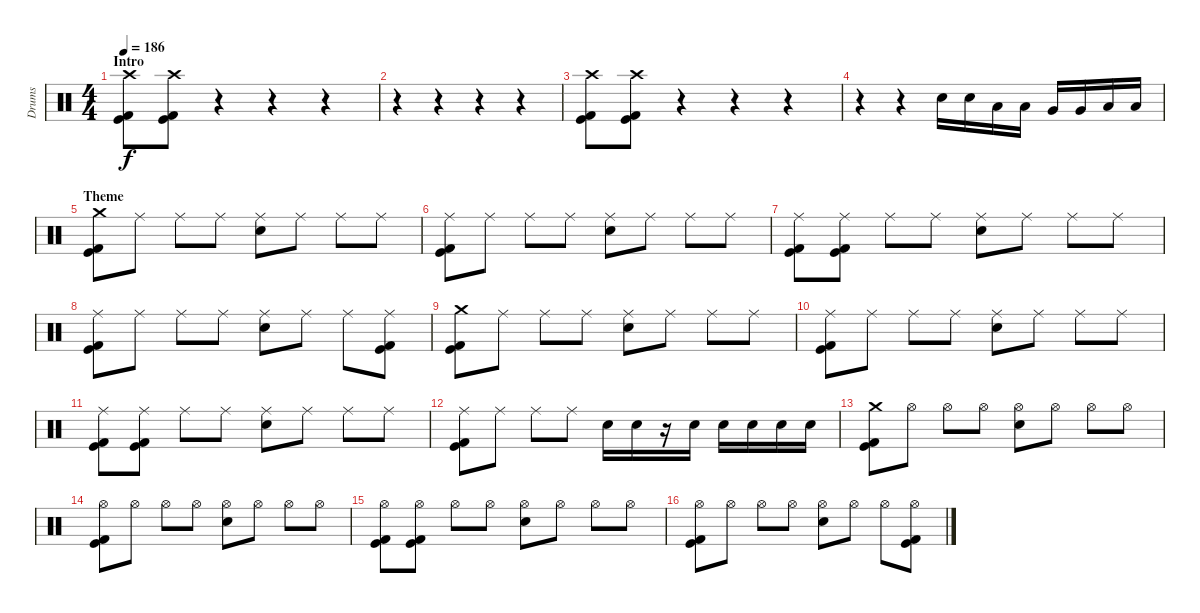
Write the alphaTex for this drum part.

\track ("Drums" "Drums") {instrument percussion}
\staff {score}
\articulation defaults
\ts (4 4)
\section ("" "Intro")
\tempo 186
\clef neutral
\ks c
("Crash high (hit)" "Kick (hit)" "Kick (hit) 2").8{dy f} ("Crash high (hit)" "Kick (hit)" "Kick (hit) 2").8 r.4 r.4 r.4 |
r.4 r.4 r.4 r.4 |
("Crash high (hit)" "Kick (hit)" "Kick (hit) 2").8 ("Crash high (hit)" "Kick (hit)" "Kick (hit) 2").8 r.4 r.4 r.4 |
r.4 r.4 "Electric Snare (hit)".16 "Electric Snare (hit)".16 "Low Tom (hit)".16 "Low Tom (hit)".16 "Very Low Tom (hit)".16 "Very Low Tom (hit)".16 "Low Floor Tom (hit)".16 "Low Floor Tom (hit)".16 |
\section ("" "Theme")
("Crash medium (hit)" "Kick (hit)" "Kick (hit) 2").8 "Ride (middle)".8 "Ride (middle)".8 "Ride (middle)".8 ("Ride (middle)" "Electric Snare (hit)").8 "Ride (middle)".8 "Ride (middle)".8 "Ride (middle)".8 |
("Ride (middle)" "Kick (hit)" "Kick (hit) 2").8 "Ride (middle)".8 "Ride (middle)".8 "Ride (middle)".8 ("Ride (middle)" "Electric Snare (hit)").8 "Ride (middle)".8 "Ride (middle)".8 "Ride (middle)".8 |
("Ride (middle)" "Kick (hit)" "Kick (hit) 2").8 ("Ride (middle)" "Kick (hit)" "Kick (hit) 2").8 "Ride (middle)".8 "Ride (middle)".8 ("Ride (middle)" "Electric Snare (hit)").8 "Ride (middle)".8 "Ride (middle)".8 "Ride (middle)".8 |
("Ride (middle)" "Kick (hit)" "Kick (hit) 2").8 "Ride (middle)".8 "Ride (middle)".8 "Ride (middle)".8 ("Ride (middle)" "Electric Snare (hit)").8 "Ride (middle)".8 "Ride (middle)".8 ("Ride (middle)" "Kick (hit)" "Kick (hit) 2").8 |
("Crash medium (hit)" "Kick (hit)" "Kick (hit) 2").8 "Ride (middle)".8 "Ride (middle)".8 "Ride (middle)".8 ("Ride (middle)" "Electric Snare (hit)").8 "Ride (middle)".8 "Ride (middle)".8 "Ride (middle)".8 |
("Ride (middle)" "Kick (hit)" "Kick (hit) 2").8 "Ride (middle)".8 "Ride (middle)".8 "Ride (middle)".8 ("Ride (middle)" "Electric Snare (hit)").8 "Ride (middle)".8 "Ride (middle)".8 "Ride (middle)".8 |
("Ride (middle)" "Kick (hit)" "Kick (hit) 2").8 ("Ride (middle)" "Kick (hit)" "Kick (hit) 2").8 "Ride (middle)".8 "Ride (middle)".8 ("Ride (middle)" "Electric Snare (hit)").8 "Ride (middle)".8 "Ride (middle)".8 "Ride (middle)".8 |
("Ride (middle)" "Kick (hit)" "Kick (hit) 2").8 "Ride (middle)".8 "Ride (middle)".8 "Ride (middle)".8 "Electric Snare (hit)".16 "Electric Snare (hit)".16 r.16 "Electric Snare (hit)".16 "Electric Snare (hit)".16 "Electric Snare (hit)".16 "Electric Snare (hit)".16 "Electric Snare (hit)".16 |
("Crash medium (hit)" "Kick (hit) 2" "Kick (hit)").8 "Hi-Hat (open)".8 "Hi-Hat (open)".8 "Hi-Hat (open)".8 ("Hi-Hat (open)" "Electric Snare (hit)").8 "Hi-Hat (open)".8 "Hi-Hat (open)".8 "Hi-Hat (open)".8 |
("Hi-Hat (open)" "Kick (hit)" "Kick (hit) 2").8 "Hi-Hat (open)".8 "Hi-Hat (open)".8 "Hi-Hat (open)".8 ("Hi-Hat (open)" "Electric Snare (hit)").8 "Hi-Hat (open)".8 "Hi-Hat (open)".8 "Hi-Hat (open)".8 |
("Hi-Hat (open)" "Kick (hit)" "Kick (hit) 2").8 ("Hi-Hat (open)" "Kick (hit)" "Kick (hit) 2").8 "Hi-Hat (open)".8 "Hi-Hat (open)".8 ("Hi-Hat (open)" "Electric Snare (hit)").8 "Hi-Hat (open)".8 "Hi-Hat (open)".8 "Hi-Hat (open)".8 |
("Hi-Hat (open)" "Kick (hit)" "Kick (hit) 2").8 "Hi-Hat (open)".8 "Hi-Hat (open)".8 "Hi-Hat (open)".8 ("Hi-Hat (open)" "Electric Snare (hit)").8 "Hi-Hat (open)".8 "Hi-Hat (open)".8 ("Hi-Hat (open)" "Kick (hit)" "Kick (hit) 2").8
